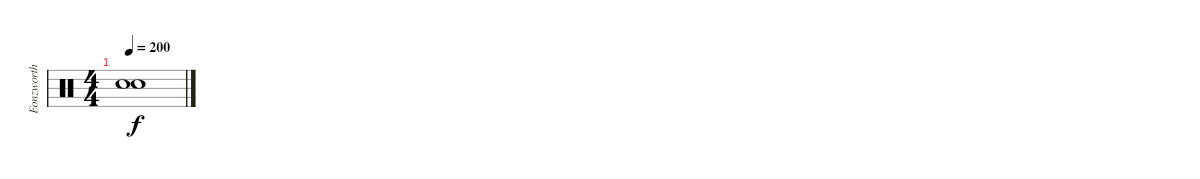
\track ("Fonzworth Fred" "Fonzworth ") {instrument percussion}
\staff {score}
\articulation defaults
\ts (4 4)
\tempo 200
\clef neutral
\ks c
("Snare (hit)"{t} "Snare (hit)"{t}).1{dy f}
